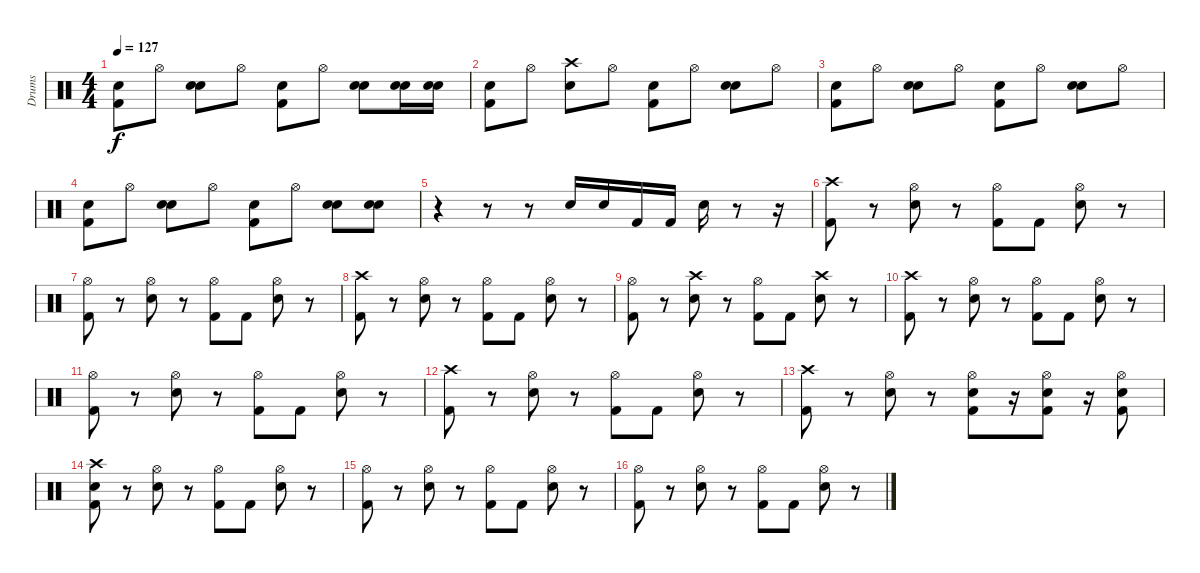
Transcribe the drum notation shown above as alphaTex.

\track ("Drums" "Drums") {instrument percussion}
\staff {score}
\articulation defaults
\ts (4 4)
\tempo 127
\clef neutral
\ks c
("Snare (hit)" "Kick (hit) 2").8{dy f} "Hi-Hat (open)".8 ("Snare (hit)" "Snare (hit) 2").8 "Hi-Hat (open)".8 ("Snare (hit)" "Kick (hit) 2").8 "Hi-Hat (open)".8 ("Snare (hit)" "Snare (hit) 2").8 ("Snare (hit)" "Snare (hit) 2").16 ("Snare (hit)" "Snare (hit) 2").16 |
("Snare (hit)" "Kick (hit) 2").8 "Hi-Hat (open)".8 ("Crash high (hit)" "Snare (hit) 2").8 "Hi-Hat (open)".8 ("Snare (hit)" "Kick (hit) 2").8 "Hi-Hat (open)".8 ("Snare (hit)" "Snare (hit) 2").8 "Hi-Hat (open)".8 |
("Snare (hit)" "Kick (hit) 2").8 "Hi-Hat (open)".8 ("Snare (hit)" "Snare (hit) 2").8 "Hi-Hat (open)".8 ("Snare (hit)" "Kick (hit) 2").8 "Hi-Hat (open)".8 ("Snare (hit)" "Snare (hit) 2").8 "Hi-Hat (open)".8 |
("Snare (hit)" "Kick (hit) 2").8 "Hi-Hat (open)".8 ("Snare (hit)" "Snare (hit) 2").8 "Hi-Hat (open)".8 ("Snare (hit)" "Kick (hit) 2").8 "Hi-Hat (open)".8 ("Snare (hit)" "Snare (hit) 2").8 ("Snare (hit)" "Snare (hit) 2").8 |
r.4 r.8 r.8 "Snare (hit) 2".16 "Snare (hit) 2".16 "Kick (hit) 2".16 "Kick (hit) 2".16 "Snare (hit) 2".16 r.8 r.16 |
("Crash high (hit)" "Kick (hit) 2").8 r.8 ("Hi-Hat (open)" "Snare (hit) 2").8 r.8 ("Hi-Hat (open)" "Kick (hit) 2").8 "Kick (hit) 2".8 ("Hi-Hat (open)" "Snare (hit) 2").8 r.8 |
("Hi-Hat (open)" "Kick (hit) 2").8 r.8 ("Hi-Hat (open)" "Snare (hit) 2").8 r.8 ("Hi-Hat (open)" "Kick (hit) 2").8 "Kick (hit) 2".8 ("Hi-Hat (open)" "Snare (hit) 2").8 r.8 |
("Crash high (hit)" "Kick (hit) 2").8 r.8 ("Hi-Hat (open)" "Snare (hit) 2").8 r.8 ("Hi-Hat (open)" "Kick (hit) 2").8 "Kick (hit) 2".8 ("Hi-Hat (open)" "Snare (hit) 2").8 r.8 |
("Hi-Hat (open)" "Kick (hit) 2").8 r.8 ("Crash high (hit)" "Snare (hit) 2").8 r.8 ("Hi-Hat (open)" "Kick (hit) 2").8 "Kick (hit) 2".8 ("Crash high (hit)" "Snare (hit) 2").8 r.8 |
("Crash high (hit)" "Kick (hit) 2").8 r.8 ("Hi-Hat (open)" "Snare (hit) 2").8 r.8 ("Hi-Hat (open)" "Kick (hit) 2").8 "Kick (hit) 2".8 ("Hi-Hat (open)" "Snare (hit) 2").8 r.8 |
("Hi-Hat (open)" "Kick (hit) 2").8 r.8 ("Hi-Hat (open)" "Snare (hit) 2").8 r.8 ("Hi-Hat (open)" "Kick (hit) 2").8 "Kick (hit) 2".8 ("Hi-Hat (open)" "Snare (hit) 2").8 r.8 |
("Crash high (hit)" "Kick (hit) 2").8 r.8 ("Hi-Hat (open)" "Snare (hit) 2").8 r.8 ("Hi-Hat (open)" "Kick (hit) 2").8 "Kick (hit) 2".8 ("Hi-Hat (open)" "Snare (hit) 2").8 r.8 |
("Crash high (hit)" "Kick (hit) 2").8 r.8 ("Hi-Hat (open)" "Snare (hit) 2").8 r.8 ("Hi-Hat (open)" "Snare (hit) 2" "Kick (hit) 2").8 r.16 ("Hi-Hat (open)" "Snare (hit) 2" "Kick (hit) 2").8 r.16 ("Hi-Hat (open)" "Snare (hit) 2" "Kick (hit) 2").8 |
("Crash high (hit)" "Snare (hit) 2" "Kick (hit) 2").8 r.8 ("Hi-Hat (open)" "Snare (hit) 2").8 r.8 ("Hi-Hat (open)" "Kick (hit) 2").8 "Kick (hit) 2".8 ("Hi-Hat (open)" "Snare (hit) 2").8 r.8 |
("Hi-Hat (open)" "Kick (hit) 2").8 r.8 ("Hi-Hat (open)" "Snare (hit) 2").8 r.8 ("Hi-Hat (open)" "Kick (hit) 2").8 "Kick (hit) 2".8 ("Hi-Hat (open)" "Snare (hit) 2").8 r.8 |
("Hi-Hat (open)" "Kick (hit) 2").8 r.8 ("Hi-Hat (open)" "Snare (hit) 2").8 r.8 ("Hi-Hat (open)" "Kick (hit) 2").8 "Kick (hit) 2".8 ("Hi-Hat (open)" "Snare (hit) 2").8 r.8
